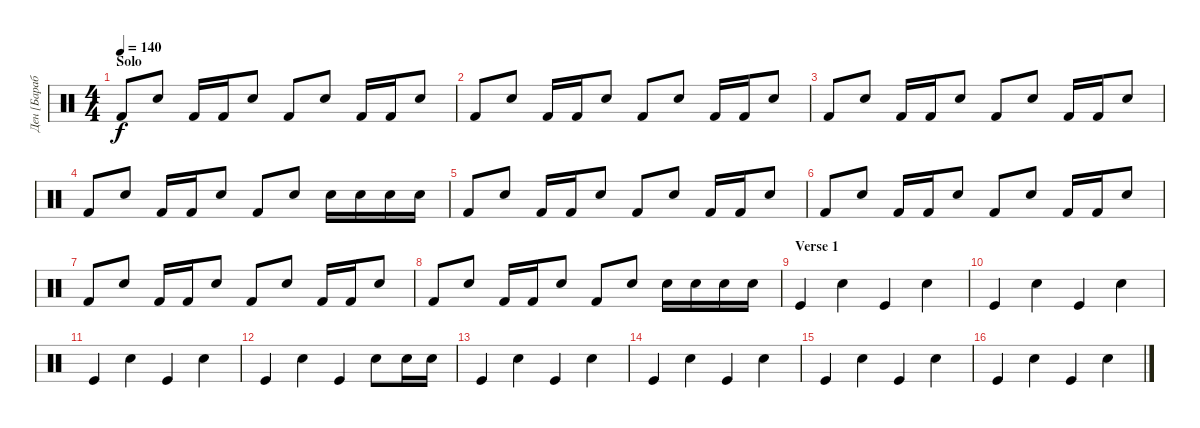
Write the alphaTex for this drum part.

\track ("Ден [Барабаны]" "Ден [Бараб") {instrument percussion}
\staff {score}
\articulation defaults
\ts (4 4)
\section ("" "Solo")
\tempo 140
\clef neutral
\ks c "Kick (hit) 2".8{dy f} "Electric Snare (hit)".8 "Kick (hit) 2".16 "Kick (hit) 2".16 "Electric Snare (hit)".8 "Kick (hit) 2".8 "Electric Snare (hit)".8 "Kick (hit) 2".16 "Kick (hit) 2".16 "Electric Snare (hit)".8
|
"Kick (hit) 2".8 "Electric Snare (hit)".8 "Kick (hit) 2".16 "Kick (hit) 2".16 "Electric Snare (hit)".8 "Kick (hit) 2".8 "Electric Snare (hit)".8 "Kick (hit) 2".16 "Kick (hit) 2".16 "Electric Snare (hit)".8 |
"Kick (hit) 2".8 "Electric Snare (hit)".8 "Kick (hit) 2".16 "Kick (hit) 2".16 "Electric Snare (hit)".8 "Kick (hit) 2".8 "Electric Snare (hit)".8 "Kick (hit) 2".16 "Kick (hit) 2".16 "Electric Snare (hit)".8 |
"Kick (hit) 2".8 "Electric Snare (hit)".8 "Kick (hit) 2".16 "Kick (hit) 2".16 "Electric Snare (hit)".8 "Kick (hit) 2".8 "Electric Snare (hit)".8 "Electric Snare (hit)".16 "Electric Snare (hit)".16 "Electric Snare (hit)".16 "Electric Snare (hit)".16 |
"Kick (hit) 2".8 "Electric Snare (hit)".8 "Kick (hit) 2".16 "Kick (hit) 2".16 "Electric Snare (hit)".8 "Kick (hit) 2".8 "Electric Snare (hit)".8 "Kick (hit) 2".16 "Kick (hit) 2".16 "Electric Snare (hit)".8 |
"Kick (hit) 2".8 "Electric Snare (hit)".8 "Kick (hit) 2".16 "Kick (hit) 2".16 "Electric Snare (hit)".8 "Kick (hit) 2".8 "Electric Snare (hit)".8 "Kick (hit) 2".16 "Kick (hit) 2".16 "Electric Snare (hit)".8 |
"Kick (hit) 2".8 "Electric Snare (hit)".8 "Kick (hit) 2".16 "Kick (hit) 2".16 "Electric Snare (hit)".8 "Kick (hit) 2".8 "Electric Snare (hit)".8 "Kick (hit) 2".16 "Kick (hit) 2".16 "Electric Snare (hit)".8 |
"Kick (hit) 2".8 "Electric Snare (hit)".8 "Kick (hit) 2".16 "Kick (hit) 2".16 "Electric Snare (hit)".8 "Kick (hit) 2".8 "Electric Snare (hit)".8 "Electric Snare (hit)".16 "Electric Snare (hit)".16 "Electric Snare (hit)".16 "Electric Snare (hit)".16 |
\section ("" "Verse 1")
"Kick (hit)".4 "Electric Snare (hit)".4 "Kick (hit)".4 "Electric Snare (hit)".4 |
"Kick (hit)".4 "Electric Snare (hit)".4 "Kick (hit)".4 "Electric Snare (hit)".4 |
"Kick (hit)".4 "Electric Snare (hit)".4 "Kick (hit)".4 "Electric Snare (hit)".4 |
"Kick (hit)".4 "Electric Snare (hit)".4 "Kick (hit)".4 "Electric Snare (hit)".8 "Electric Snare (hit)".16 "Electric Snare (hit)".16 |
"Kick (hit)".4 "Electric Snare (hit)".4 "Kick (hit)".4 "Electric Snare (hit)".4 |
"Kick (hit)".4 "Electric Snare (hit)".4 "Kick (hit)".4 "Electric Snare (hit)".4 |
"Kick (hit)".4 "Electric Snare (hit)".4 "Kick (hit)".4 "Electric Snare (hit)".4 |
"Kick (hit)".4 "Electric Snare (hit)".4 "Kick (hit)".4 "Electric Snare (hit)".4
